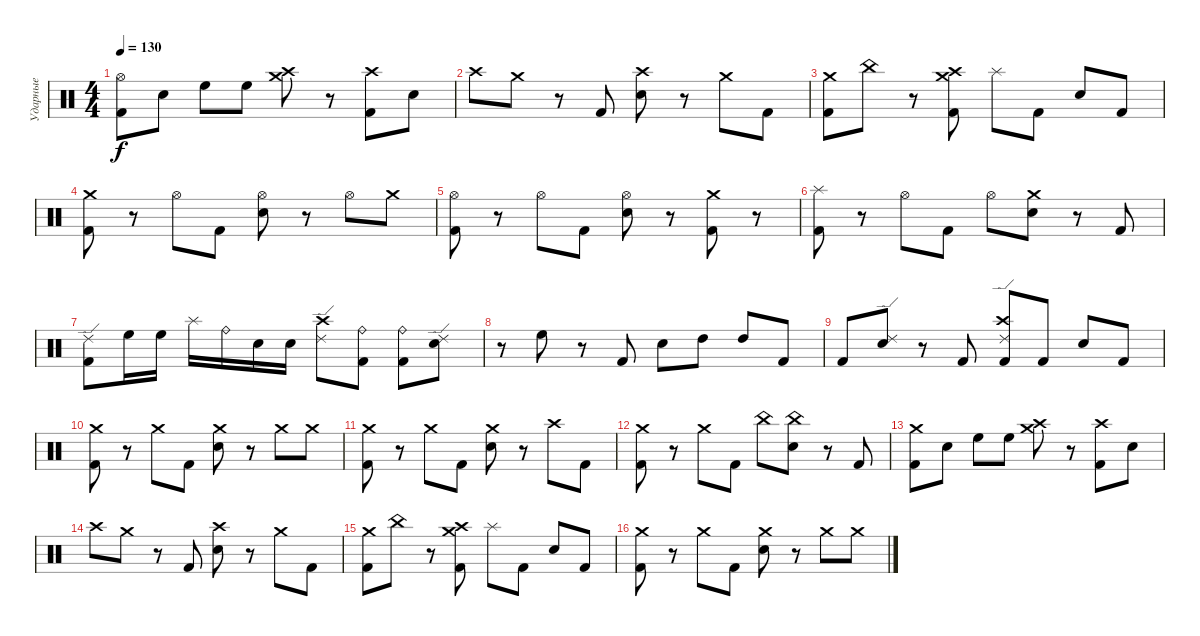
\track ("Ударные" "Ударные") {instrument percussion}
\staff {score}
\articulation defaults
\ts (4 4)
\tempo 130
\clef neutral
\ks c
("Hi-Hat (open)" "Kick (hit) 2").8{dy f} "Electric Snare (hit)".8 "High Floor Tom (hit)".8 "High Floor Tom (hit)".8 ("Crash medium (hit)" "Crash high (hit)").8 r.8 ("Crash high (hit)" "Kick (hit) 2").8 "Electric Snare (hit)".8 |
"Crash high (hit)".8 "Crash medium (hit)".8 r.8 "Kick (hit) 2".8 ("Crash high (hit)" "Electric Snare (hit)").8 r.8 "Crash medium (hit)".8 "Kick (hit) 2".8 |
("Crash medium (hit)" "Kick (hit) 2").8 "China (hit)".8 r.8 ("Crash high (hit)" "Crash medium (hit)" "Kick (hit) 2").8 "Splash (hit)".8 "Kick (hit) 2".8 "Electric Snare (hit)".8 "Kick (hit) 2".8 |
("Crash medium (hit)" "Kick (hit) 2").8 r.8 "Hi-Hat (open)".8 "Kick (hit) 2".8 ("Hi-Hat (open)" "Electric Snare (hit)").8 r.8 "Hi-Hat (open)".8 "Crash medium (hit)".8 |
("Hi-Hat (open)" "Kick (hit) 2").8 r.8 "Hi-Hat (open)".8 "Kick (hit) 2".8 ("Hi-Hat (open)" "Electric Snare (hit)").8 r.8 ("Crash medium (hit)" "Kick (hit) 2").8 r.8 |
("Splash (hit)" "Kick (hit) 2").8 r.8 "Hi-Hat (open)".8 "Kick (hit) 2".8 "Hi-Hat (open)".8 ("Crash medium (hit)" "Electric Snare (hit)").8 r.8 "Kick (hit) 2".8 |
("Ride (edge) 2" "Kick (hit) 2").8 "High Floor Tom (hit)".16 "High Floor Tom (hit)".16 "Splash (hit)".16 "Ride (bell)".16 "Electric Snare (hit)".16 "Electric Snare (hit)".16 ("Ride (edge) 2" "Crash high (hit)").8 ("Ride (bell)" "Kick (hit) 2").8 ("Ride (bell)" "Kick (hit) 2").8 ("Ride (edge) 2" "Electric Snare (hit)").8 |
r.8 "High Floor Tom (hit)".8 r.8 "Kick (hit) 2".8 "Electric Snare (hit)".8 "High Tom (hit)".8 "High Tom (hit)".8 "Kick (hit) 2".8 |
"Kick (hit) 2".8 ("Ride (edge) 2" "Electric Snare (hit)").8 r.8 "Kick (hit) 2".8 ("Ride (edge) 2" "Crash high (hit)" "Kick (hit) 2").8 "Kick (hit) 2".8 "Electric Snare (hit)".8 "Kick (hit) 2".8 |
("Crash medium (hit)" "Kick (hit) 2").8 r.8 "Crash medium (hit)".8 "Kick (hit) 2".8 ("Crash medium (hit)" "Electric Snare (hit)").8 r.8 "Crash medium (hit)".8 "Crash medium (hit)".8 |
("Crash medium (hit)" "Kick (hit) 2").8 r.8 "Crash medium (hit)".8 "Kick (hit) 2".8 ("Crash medium (hit)" "Electric Snare (hit)").8 r.8 "Crash high (hit)".8 "Kick (hit) 2".8 |
("Crash medium (hit)" "Kick (hit) 2").8 r.8 "Crash medium (hit)".8 "Kick (hit) 2".8 "China (hit)".8 ("China (hit)" "Electric Snare (hit)").8 r.8 "Kick (hit) 2".8 |
("Crash medium (hit)" "Kick (hit) 2").8 "Electric Snare (hit)".8 "High Floor Tom (hit)".8 "High Floor Tom (hit)".8 ("Crash medium (hit)" "Crash high (hit)").8 r.8 ("Crash high (hit)" "Kick (hit) 2").8 "Electric Snare (hit)".8 |
"Crash high (hit)".8 "Crash medium (hit)".8 r.8 "Kick (hit) 2".8 ("Crash high (hit)" "Electric Snare (hit)").8 r.8 "Crash medium (hit)".8 "Kick (hit) 2".8 |
("Crash medium (hit)" "Kick (hit) 2").8 "China (hit)".8 r.8 ("Crash high (hit)" "Crash medium (hit)" "Kick (hit) 2").8 "Splash (hit)".8 "Kick (hit) 2".8 "Electric Snare (hit)".8 "Kick (hit) 2".8 |
("Crash medium (hit)" "Kick (hit) 2").8 r.8 "Crash medium (hit)".8 "Kick (hit) 2".8 ("Crash medium (hit)" "Electric Snare (hit)").8 r.8 "Crash medium (hit)".8 "Crash medium (hit)".8
